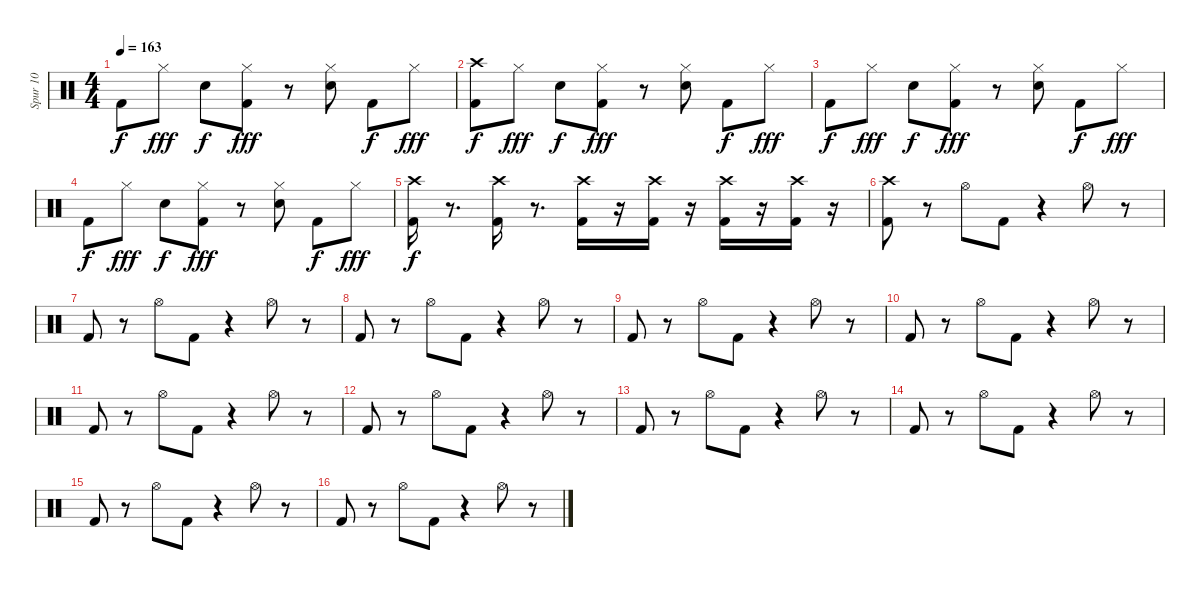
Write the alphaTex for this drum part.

\track ("Spur 10" "Spur 10") {instrument percussion}
\staff {score}
\articulation defaults
\ts (4 4)
\tempo 163
\clef neutral
\ks c "Kick (hit) 2".8{dy f} "Hi-Hat (closed)".8{dy fff} "Snare (hit) 2".8{dy f}
("Hi-Hat (closed)" "Kick (hit) 2").8{dy fff} r.8 ("Hi-Hat (closed)" "Snare (hit) 2").8 "Kick (hit) 2".8{dy f} "Hi-Hat (closed)".8{dy fff} |
("Crash high (hit)" "Kick (hit) 2").8{dy f} "Hi-Hat (closed)".8{dy fff} "Snare (hit) 2".8{dy f} ("Hi-Hat (closed)" "Kick (hit) 2").8{dy fff} r.8 ("Hi-Hat (closed)" "Snare (hit) 2").8 "Kick (hit) 2".8{dy f} "Hi-Hat (closed)".8{dy fff} |
"Kick (hit) 2".8{dy f} "Hi-Hat (closed)".8{dy fff} "Snare (hit) 2".8{dy f} ("Hi-Hat (closed)" "Kick (hit) 2").8{dy fff} r.8 ("Hi-Hat (closed)" "Snare (hit) 2").8 "Kick (hit) 2".8{dy f} "Hi-Hat (closed)".8{dy fff} |
"Kick (hit) 2".8{dy f} "Hi-Hat (closed)".8{dy fff} "Snare (hit) 2".8{dy f} ("Hi-Hat (closed)" "Kick (hit) 2").8{dy fff} r.8 ("Hi-Hat (closed)" "Snare (hit) 2").8 "Kick (hit) 2".8{dy f} "Hi-Hat (closed)".8{dy fff} |
("Kick (hit) 2" "Crash high (hit)").16{dy f} r.8{d} ("Kick (hit) 2" "Crash high (hit)").16 r.8{d} ("Kick (hit) 2" "Crash high (hit)").16 r.16 ("Kick (hit) 2" "Crash high (hit)").16 r.16 ("Kick (hit) 2" "Crash high (hit)").16 r.16 ("Kick (hit) 2" "Crash high (hit)").16 r.16 |
("Kick (hit) 2" "Crash high (hit)").8 r.8 "Hi-Hat (open)".8 "Kick (hit) 2".8 r.4 "Hi-Hat (open)".8 r.8 |
"Kick (hit) 2".8 r.8 "Hi-Hat (open)".8 "Kick (hit) 2".8 r.4 "Hi-Hat (open)".8 r.8 |
"Kick (hit) 2".8 r.8 "Hi-Hat (open)".8 "Kick (hit) 2".8 r.4 "Hi-Hat (open)".8 r.8 |
"Kick (hit) 2".8 r.8 "Hi-Hat (open)".8 "Kick (hit) 2".8 r.4 "Hi-Hat (open)".8 r.8 |
"Kick (hit) 2".8 r.8 "Hi-Hat (open)".8 "Kick (hit) 2".8 r.4 "Hi-Hat (open)".8 r.8 |
"Kick (hit) 2".8 r.8 "Hi-Hat (open)".8 "Kick (hit) 2".8 r.4 "Hi-Hat (open)".8 r.8 |
"Kick (hit) 2".8 r.8 "Hi-Hat (open)".8 "Kick (hit) 2".8 r.4 "Hi-Hat (open)".8 r.8 |
"Kick (hit) 2".8 r.8 "Hi-Hat (open)".8 "Kick (hit) 2".8 r.4 "Hi-Hat (open)".8 r.8 |
"Kick (hit) 2".8 r.8 "Hi-Hat (open)".8 "Kick (hit) 2".8 r.4 "Hi-Hat (open)".8 r.8 |
"Kick (hit) 2".8 r.8 "Hi-Hat (open)".8 "Kick (hit) 2".8 r.4 "Hi-Hat (open)".8 r.8 |
"Kick (hit) 2".8 r.8 "Hi-Hat (open)".8 "Kick (hit) 2".8 r.4 "Hi-Hat (open)".8 r.8
